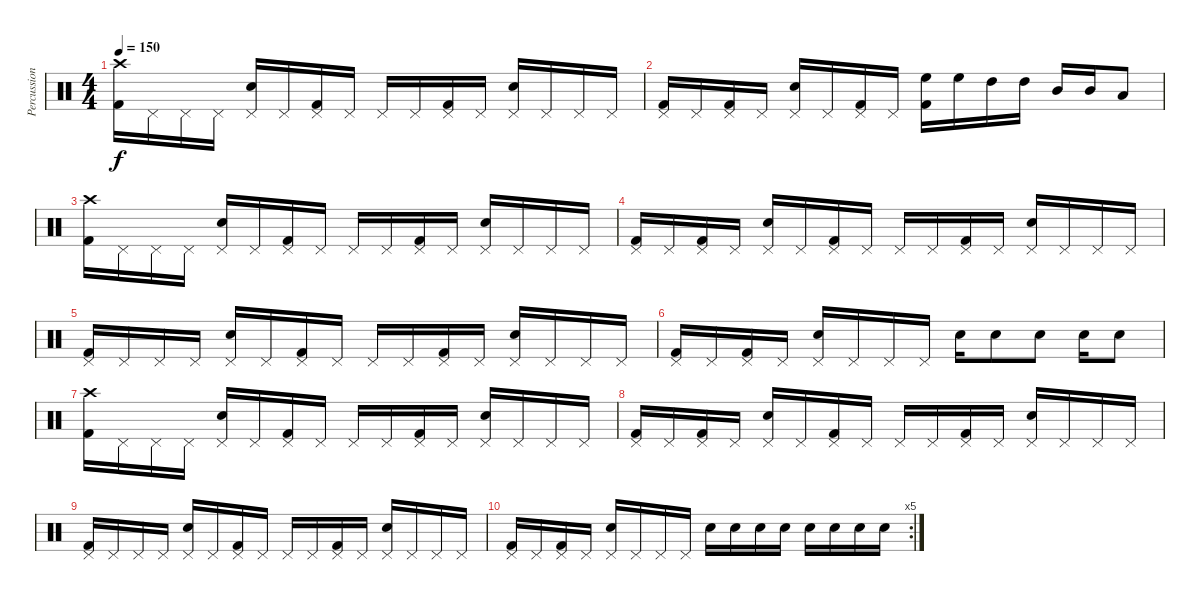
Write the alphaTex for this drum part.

\track ("Percussion" "Percussion") {instrument percussion}
\staff {score}
\articulation defaults
\ts (4 4)
\tempo 150
\clef neutral
\ks c
("Crash high (hit)" "Kick (hit) 2").16{dy f} "Pedal Hi-Hat (hit)".16 "Pedal Hi-Hat (hit)".16 "Pedal Hi-Hat (hit)".16 ("Pedal Hi-Hat (hit)" "Snare (hit) 2").16 "Pedal Hi-Hat (hit)".16 ("Pedal Hi-Hat (hit)" "Kick (hit) 2").16 "Pedal Hi-Hat (hit)".16 "Pedal Hi-Hat (hit)".16 "Pedal Hi-Hat (hit)".16 ("Pedal Hi-Hat (hit)" "Kick (hit) 2").16 "Pedal Hi-Hat (hit)".16 ("Pedal Hi-Hat (hit)" "Snare (hit) 2").16 "Pedal Hi-Hat (hit)".16 "Pedal Hi-Hat (hit)".16 "Pedal Hi-Hat (hit)".16 |
("Pedal Hi-Hat (hit)" "Kick (hit) 2").16 "Pedal Hi-Hat (hit)".16 ("Pedal Hi-Hat (hit)" "Kick (hit) 2").16 "Pedal Hi-Hat (hit)".16 ("Pedal Hi-Hat (hit)" "Snare (hit) 2").16 "Pedal Hi-Hat (hit)".16 ("Pedal Hi-Hat (hit)" "Kick (hit) 2").16 "Pedal Hi-Hat (hit)".16 ("High Floor Tom (hit)" "Kick (hit) 2").16 "High Floor Tom (hit)".16 "High Tom (hit)".16 "High Tom (hit)".16 "Mid Tom (hit)".16 "Mid Tom (hit)".16 "Low Tom (hit)".8 |
("Crash high (hit)" "Kick (hit) 2").16 "Pedal Hi-Hat (hit)".16 "Pedal Hi-Hat (hit)".16 "Pedal Hi-Hat (hit)".16 ("Pedal Hi-Hat (hit)" "Snare (hit) 2").16 "Pedal Hi-Hat (hit)".16 ("Pedal Hi-Hat (hit)" "Kick (hit) 2").16 "Pedal Hi-Hat (hit)".16 "Pedal Hi-Hat (hit)".16 "Pedal Hi-Hat (hit)".16 ("Pedal Hi-Hat (hit)" "Kick (hit) 2").16 "Pedal Hi-Hat (hit)".16 ("Pedal Hi-Hat (hit)" "Snare (hit) 2").16 "Pedal Hi-Hat (hit)".16 "Pedal Hi-Hat (hit)".16 "Pedal Hi-Hat (hit)".16 |
("Pedal Hi-Hat (hit)" "Kick (hit) 2").16 "Pedal Hi-Hat (hit)".16 ("Pedal Hi-Hat (hit)" "Kick (hit) 2").16 "Pedal Hi-Hat (hit)".16 ("Pedal Hi-Hat (hit)" "Snare (hit) 2").16 "Pedal Hi-Hat (hit)".16 ("Pedal Hi-Hat (hit)" "Kick (hit) 2").16 "Pedal Hi-Hat (hit)".16 "Pedal Hi-Hat (hit)".16 "Pedal Hi-Hat (hit)".16 ("Pedal Hi-Hat (hit)" "Kick (hit) 2").16 "Pedal Hi-Hat (hit)".16 ("Pedal Hi-Hat (hit)" "Snare (hit) 2").16 "Pedal Hi-Hat (hit)".16 "Pedal Hi-Hat (hit)".16 "Pedal Hi-Hat (hit)".16 |
("Pedal Hi-Hat (hit)" "Kick (hit) 2").16 "Pedal Hi-Hat (hit)".16 "Pedal Hi-Hat (hit)".16 "Pedal Hi-Hat (hit)".16 ("Pedal Hi-Hat (hit)" "Snare (hit) 2").16 "Pedal Hi-Hat (hit)".16 ("Pedal Hi-Hat (hit)" "Kick (hit) 2").16 "Pedal Hi-Hat (hit)".16 "Pedal Hi-Hat (hit)".16 "Pedal Hi-Hat (hit)".16 ("Pedal Hi-Hat (hit)" "Kick (hit) 2").16 "Pedal Hi-Hat (hit)".16 ("Pedal Hi-Hat (hit)" "Snare (hit) 2").16 "Pedal Hi-Hat (hit)".16 "Pedal Hi-Hat (hit)".16 "Pedal Hi-Hat (hit)".16 |
("Pedal Hi-Hat (hit)" "Kick (hit) 2").16 "Pedal Hi-Hat (hit)".16 ("Pedal Hi-Hat (hit)" "Kick (hit) 2").16 "Pedal Hi-Hat (hit)".16 ("Pedal Hi-Hat (hit)" "Snare (hit) 2").16 "Pedal Hi-Hat (hit)".16 "Pedal Hi-Hat (hit)".16 "Pedal Hi-Hat (hit)".16 "Snare (hit) 2".16 "Snare (hit) 2".8 "Snare (hit) 2".8 "Snare (hit) 2".16 "Snare (hit) 2".8 |
("Crash high (hit)" "Kick (hit) 2").16 "Pedal Hi-Hat (hit)".16 "Pedal Hi-Hat (hit)".16 "Pedal Hi-Hat (hit)".16 ("Pedal Hi-Hat (hit)" "Snare (hit) 2").16 "Pedal Hi-Hat (hit)".16 ("Pedal Hi-Hat (hit)" "Kick (hit) 2").16 "Pedal Hi-Hat (hit)".16 "Pedal Hi-Hat (hit)".16 "Pedal Hi-Hat (hit)".16 ("Pedal Hi-Hat (hit)" "Kick (hit) 2").16 "Pedal Hi-Hat (hit)".16 ("Pedal Hi-Hat (hit)" "Snare (hit) 2").16 "Pedal Hi-Hat (hit)".16 "Pedal Hi-Hat (hit)".16 "Pedal Hi-Hat (hit)".16 |
("Pedal Hi-Hat (hit)" "Kick (hit) 2").16 "Pedal Hi-Hat (hit)".16 ("Pedal Hi-Hat (hit)" "Kick (hit) 2").16 "Pedal Hi-Hat (hit)".16 ("Pedal Hi-Hat (hit)" "Snare (hit) 2").16 "Pedal Hi-Hat (hit)".16 ("Pedal Hi-Hat (hit)" "Kick (hit) 2").16 "Pedal Hi-Hat (hit)".16 "Pedal Hi-Hat (hit)".16 "Pedal Hi-Hat (hit)".16 ("Pedal Hi-Hat (hit)" "Kick (hit) 2").16 "Pedal Hi-Hat (hit)".16 ("Pedal Hi-Hat (hit)" "Snare (hit) 2").16 "Pedal Hi-Hat (hit)".16 "Pedal Hi-Hat (hit)".16 "Pedal Hi-Hat (hit)".16 |
("Pedal Hi-Hat (hit)" "Kick (hit) 2").16 "Pedal Hi-Hat (hit)".16 "Pedal Hi-Hat (hit)".16 "Pedal Hi-Hat (hit)".16 ("Pedal Hi-Hat (hit)" "Snare (hit) 2").16 "Pedal Hi-Hat (hit)".16 ("Pedal Hi-Hat (hit)" "Kick (hit) 2").16 "Pedal Hi-Hat (hit)".16 "Pedal Hi-Hat (hit)".16 "Pedal Hi-Hat (hit)".16 ("Pedal Hi-Hat (hit)" "Kick (hit) 2").16 "Pedal Hi-Hat (hit)".16 ("Pedal Hi-Hat (hit)" "Snare (hit) 2").16 "Pedal Hi-Hat (hit)".16 "Pedal Hi-Hat (hit)".16 "Pedal Hi-Hat (hit)".16 |
\rc 5
("Pedal Hi-Hat (hit)" "Kick (hit) 2").16 "Pedal Hi-Hat (hit)".16 ("Pedal Hi-Hat (hit)" "Kick (hit) 2").16 "Pedal Hi-Hat (hit)".16 ("Pedal Hi-Hat (hit)" "Snare (hit) 2").16 "Pedal Hi-Hat (hit)".16 "Pedal Hi-Hat (hit)".16 "Pedal Hi-Hat (hit)".16 "Snare (hit) 2".16 "Snare (hit) 2".16 "Snare (hit) 2".16 "Snare (hit) 2".16 "Snare (hit) 2".16 "Snare (hit) 2".16 "Snare (hit) 2".16 "Snare (hit) 2".16
